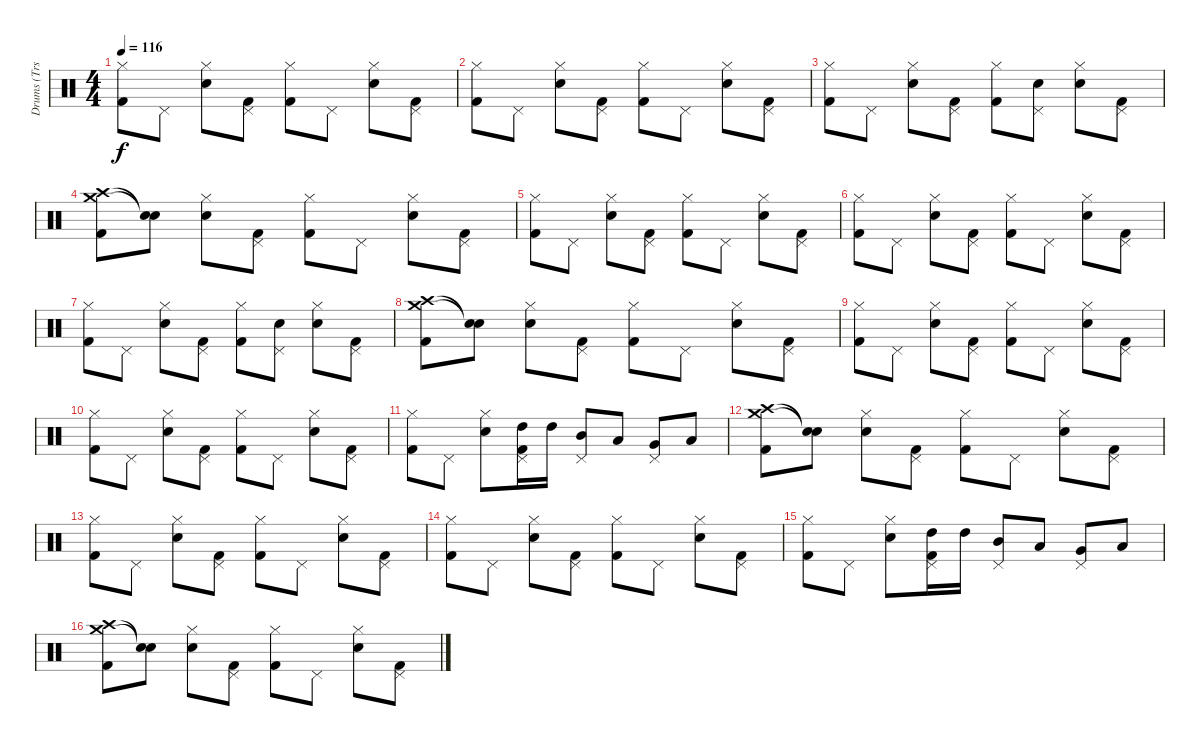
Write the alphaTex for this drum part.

\track ("Drums (Trs. 7-8A, 10A/7-8B, 10B, 12-13B)" "Drums (Trs") {mute instrument percussion}
\staff {score}
\articulation defaults
\ts (4 4)
\tempo 116
\clef neutral
\ks c
("Hi-Hat (closed)" "Kick (hit) 2").8{dy f} "Pedal Hi-Hat (hit)".8 ("Electric Snare (hit)" "Hi-Hat (closed)").8 ("Pedal Hi-Hat (hit)" "Kick (hit) 2").8 ("Hi-Hat (closed)" "Kick (hit) 2").8 "Pedal Hi-Hat (hit)".8 ("Electric Snare (hit)" "Hi-Hat (closed)").8 ("Pedal Hi-Hat (hit)" "Kick (hit) 2").8 |
("Hi-Hat (closed)" "Kick (hit) 2").8 "Pedal Hi-Hat (hit)".8 ("Electric Snare (hit)" "Hi-Hat (closed)").8 ("Pedal Hi-Hat (hit)" "Kick (hit) 2").8 ("Hi-Hat (closed)" "Kick (hit) 2").8 "Pedal Hi-Hat (hit)".8 ("Electric Snare (hit)" "Hi-Hat (closed)").8 ("Pedal Hi-Hat (hit)" "Kick (hit) 2").8 |
("Hi-Hat (closed)" "Kick (hit) 2").8 "Pedal Hi-Hat (hit)".8 ("Electric Snare (hit)" "Hi-Hat (closed)").8 ("Pedal Hi-Hat (hit)" "Kick (hit) 2").8 ("Hi-Hat (closed)" "Kick (hit) 2").8 ("Electric Snare (hit)" "Pedal Hi-Hat (hit)").8 ("Electric Snare (hit)" "Hi-Hat (closed)").8 ("Pedal Hi-Hat (hit)" "Kick (hit) 2").8 |
("Crash medium (hit)" "Crash high (hit)" "Kick (hit) 2").8 ("Snare (hit)"{t} "Snare (hit)"{t}).8 ("Electric Snare (hit)" "Hi-Hat (closed)").8 ("Pedal Hi-Hat (hit)" "Kick (hit) 2").8 ("Hi-Hat (closed)" "Kick (hit) 2").8 "Pedal Hi-Hat (hit)".8 ("Electric Snare (hit)" "Hi-Hat (closed)").8 ("Pedal Hi-Hat (hit)" "Kick (hit) 2").8 |
("Hi-Hat (closed)" "Kick (hit) 2").8 "Pedal Hi-Hat (hit)".8 ("Electric Snare (hit)" "Hi-Hat (closed)").8 ("Pedal Hi-Hat (hit)" "Kick (hit) 2").8 ("Hi-Hat (closed)" "Kick (hit) 2").8 "Pedal Hi-Hat (hit)".8 ("Electric Snare (hit)" "Hi-Hat (closed)").8 ("Pedal Hi-Hat (hit)" "Kick (hit) 2").8 |
("Hi-Hat (closed)" "Kick (hit) 2").8 "Pedal Hi-Hat (hit)".8 ("Electric Snare (hit)" "Hi-Hat (closed)").8 ("Pedal Hi-Hat (hit)" "Kick (hit) 2").8 ("Hi-Hat (closed)" "Kick (hit) 2").8 "Pedal Hi-Hat (hit)".8 ("Electric Snare (hit)" "Hi-Hat (closed)").8 ("Pedal Hi-Hat (hit)" "Kick (hit) 2").8 |
("Hi-Hat (closed)" "Kick (hit) 2").8 "Pedal Hi-Hat (hit)".8 ("Electric Snare (hit)" "Hi-Hat (closed)").8 ("Pedal Hi-Hat (hit)" "Kick (hit) 2").8 ("Hi-Hat (closed)" "Kick (hit) 2").8 ("Electric Snare (hit)" "Pedal Hi-Hat (hit)").8 ("Electric Snare (hit)" "Hi-Hat (closed)").8 ("Pedal Hi-Hat (hit)" "Kick (hit) 2").8 |
("Crash medium (hit)" "Crash high (hit)" "Kick (hit) 2").8 ("Snare (hit)"{t} "Snare (hit)"{t}).8 ("Electric Snare (hit)" "Hi-Hat (closed)").8 ("Pedal Hi-Hat (hit)" "Kick (hit) 2").8 ("Hi-Hat (closed)" "Kick (hit) 2").8 "Pedal Hi-Hat (hit)".8 ("Electric Snare (hit)" "Hi-Hat (closed)").8 ("Pedal Hi-Hat (hit)" "Kick (hit) 2").8 |
("Hi-Hat (closed)" "Kick (hit) 2").8 "Pedal Hi-Hat (hit)".8 ("Electric Snare (hit)" "Hi-Hat (closed)").8 ("Pedal Hi-Hat (hit)" "Kick (hit) 2").8 ("Hi-Hat (closed)" "Kick (hit) 2").8 "Pedal Hi-Hat (hit)".8 ("Electric Snare (hit)" "Hi-Hat (closed)").8 ("Pedal Hi-Hat (hit)" "Kick (hit) 2").8 |
("Hi-Hat (closed)" "Kick (hit) 2").8 "Pedal Hi-Hat (hit)".8 ("Electric Snare (hit)" "Hi-Hat (closed)").8 ("Pedal Hi-Hat (hit)" "Kick (hit) 2").8 ("Hi-Hat (closed)" "Kick (hit) 2").8 "Pedal Hi-Hat (hit)".8 ("Electric Snare (hit)" "Hi-Hat (closed)").8 ("Pedal Hi-Hat (hit)" "Kick (hit) 2").8 |
("Hi-Hat (closed)" "Kick (hit) 2").8 "Pedal Hi-Hat (hit)".8 ("Electric Snare (hit)" "Hi-Hat (closed)").8 ("Pedal Hi-Hat (hit)" "High Tom (hit)" "Kick (hit) 2").16 "High Tom (hit)".16 ("Pedal Hi-Hat (hit)" "Mid Tom (hit)").8 "Low Tom (hit)".8 ("Pedal Hi-Hat (hit)" "Very Low Tom (hit)").8 "Low Floor Tom (hit)".8 |
("Crash medium (hit)" "Crash high (hit)" "Kick (hit) 2").8 ("Snare (hit)"{t} "Snare (hit)"{t}).8 ("Electric Snare (hit)" "Hi-Hat (closed)").8 ("Pedal Hi-Hat (hit)" "Kick (hit) 2").8 ("Hi-Hat (closed)" "Kick (hit) 2").8 "Pedal Hi-Hat (hit)".8 ("Electric Snare (hit)" "Hi-Hat (closed)").8 ("Pedal Hi-Hat (hit)" "Kick (hit) 2").8 |
("Hi-Hat (closed)" "Kick (hit) 2").8 "Pedal Hi-Hat (hit)".8 ("Electric Snare (hit)" "Hi-Hat (closed)").8 ("Pedal Hi-Hat (hit)" "Kick (hit) 2").8 ("Hi-Hat (closed)" "Kick (hit) 2").8 "Pedal Hi-Hat (hit)".8 ("Electric Snare (hit)" "Hi-Hat (closed)").8 ("Pedal Hi-Hat (hit)" "Kick (hit) 2").8 |
("Hi-Hat (closed)" "Kick (hit) 2").8 "Pedal Hi-Hat (hit)".8 ("Electric Snare (hit)" "Hi-Hat (closed)").8 ("Pedal Hi-Hat (hit)" "Kick (hit) 2").8 ("Hi-Hat (closed)" "Kick (hit) 2").8 "Pedal Hi-Hat (hit)".8 ("Electric Snare (hit)" "Hi-Hat (closed)").8 ("Pedal Hi-Hat (hit)" "Kick (hit) 2").8 |
("Hi-Hat (closed)" "Kick (hit) 2").8 "Pedal Hi-Hat (hit)".8 ("Electric Snare (hit)" "Hi-Hat (closed)").8 ("Pedal Hi-Hat (hit)" "High Tom (hit)" "Kick (hit) 2").16 "High Tom (hit)".16 ("Pedal Hi-Hat (hit)" "Mid Tom (hit)").8 "Low Tom (hit)".8 ("Pedal Hi-Hat (hit)" "Very Low Tom (hit)").8 "Low Floor Tom (hit)".8 |
("Crash medium (hit)" "Crash high (hit)" "Kick (hit) 2").8 ("Snare (hit)"{t} "Snare (hit)"{t}).8 ("Electric Snare (hit)" "Hi-Hat (closed)").8 ("Pedal Hi-Hat (hit)" "Kick (hit) 2").8 ("Hi-Hat (closed)" "Kick (hit) 2").8 "Pedal Hi-Hat (hit)".8 ("Electric Snare (hit)" "Hi-Hat (closed)").8 ("Pedal Hi-Hat (hit)" "Kick (hit) 2").8
